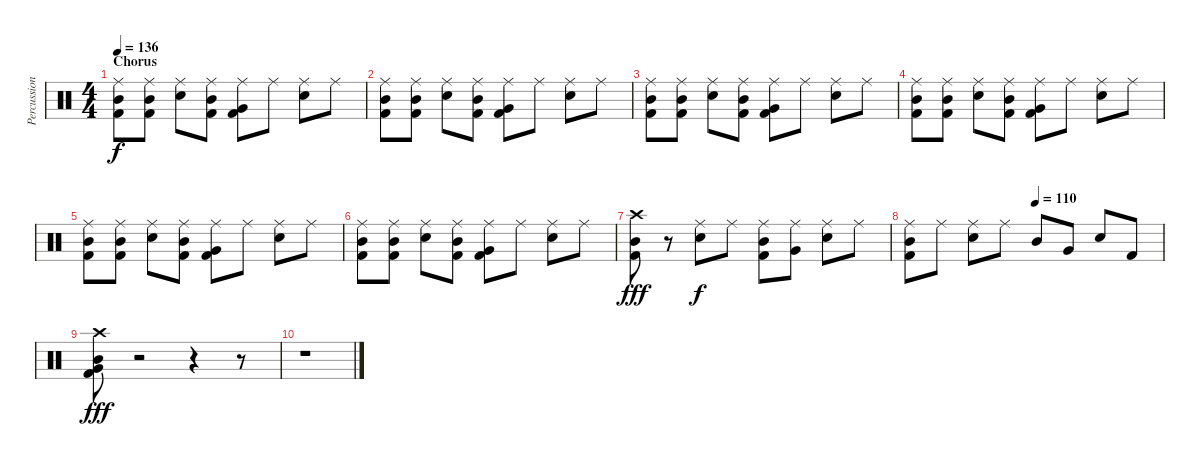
\track ("Percussion" "Percussion") {instrument percussion}
\staff {score}
\articulation defaults
\ts (4 4)
\section ("" "Chorus")
\tempo 136
\clef neutral
\ks c
("Ride (middle)" "Mid Tom (hit)" "Kick (hit) 2").8{dy f} ("Ride (middle)" "Mid Tom (hit)" "Kick (hit) 2").8 ("Ride (middle)" "Snare (hit) 2").8 ("Ride (middle)" "Mid Tom (hit)" "Kick (hit) 2").8 ("Ride (middle)" "Very Low Tom (hit)" "Kick (hit) 2").8 "Ride (middle)".8 ("Ride (middle)" "Snare (hit) 2").8 "Ride (middle)".8 |
("Ride (middle)" "Mid Tom (hit)" "Kick (hit) 2").8 ("Ride (middle)" "Mid Tom (hit)" "Kick (hit) 2").8 ("Ride (middle)" "Snare (hit) 2").8 ("Ride (middle)" "Mid Tom (hit)" "Kick (hit) 2").8 ("Ride (middle)" "Very Low Tom (hit)" "Kick (hit) 2").8 "Ride (middle)".8 ("Ride (middle)" "Snare (hit) 2").8 "Ride (middle)".8 |
("Ride (middle)" "Mid Tom (hit)" "Kick (hit) 2").8 ("Ride (middle)" "Mid Tom (hit)" "Kick (hit) 2").8 ("Ride (middle)" "Snare (hit) 2").8 ("Ride (middle)" "Mid Tom (hit)" "Kick (hit) 2").8 ("Ride (middle)" "Very Low Tom (hit)" "Kick (hit) 2").8 "Ride (middle)".8 ("Ride (middle)" "Snare (hit) 2").8 "Ride (middle)".8 |
("Ride (middle)" "Mid Tom (hit)" "Kick (hit) 2").8 ("Ride (middle)" "Mid Tom (hit)" "Kick (hit) 2").8 ("Ride (middle)" "Snare (hit) 2").8 ("Ride (middle)" "Mid Tom (hit)" "Kick (hit) 2").8 ("Ride (middle)" "Very Low Tom (hit)" "Kick (hit) 2").8 "Ride (middle)".8 ("Ride (middle)" "Snare (hit) 2").8 "Ride (middle)".8 |
("Ride (middle)" "Mid Tom (hit)" "Kick (hit) 2").8 ("Ride (middle)" "Mid Tom (hit)" "Kick (hit) 2").8 ("Ride (middle)" "Snare (hit) 2").8 ("Ride (middle)" "Mid Tom (hit)" "Kick (hit) 2").8 ("Ride (middle)" "Very Low Tom (hit)" "Kick (hit) 2").8 "Ride (middle)".8 ("Ride (middle)" "Snare (hit) 2").8 "Ride (middle)".8 |
("Ride (middle)" "Mid Tom (hit)" "Kick (hit) 2").8 ("Ride (middle)" "Mid Tom (hit)" "Kick (hit) 2").8 ("Ride (middle)" "Snare (hit) 2").8 ("Ride (middle)" "Mid Tom (hit)" "Kick (hit) 2").8 ("Ride (middle)" "Very Low Tom (hit)" "Kick (hit) 2").8 "Ride (middle)".8 ("Ride (middle)" "Snare (hit) 2").8 "Ride (middle)".8 |
("Crash high (hit)" "Mid Tom (hit)" "Kick (hit) 2").8{dy fff} r.8 ("Ride (middle)" "Snare (hit) 2").8{dy f} "Ride (middle)".8 ("Ride (middle)" "Mid Tom (hit)" "Kick (hit) 2").8 ("Ride (middle)" "Very Low Tom (hit)").8 ("Ride (middle)" "Snare (hit) 2").8 "Ride (middle)".8 |
\tempo (110 0.5)
("Ride (middle)" "Mid Tom (hit)" "Kick (hit) 2").8 "Ride (middle)".8 ("Ride (middle)" "Snare (hit) 2").8 "Ride (middle)".8 "Mid Tom (hit)".8 "Very Low Tom (hit)".8 "Snare (hit) 2".8 "Kick (hit) 2".8 |
("Crash high (hit)" "Mid Tom (hit)" "Very Low Tom (hit)" "Kick (hit) 2").8{dy fff} r.2 r.4 r.8 |
r.1
